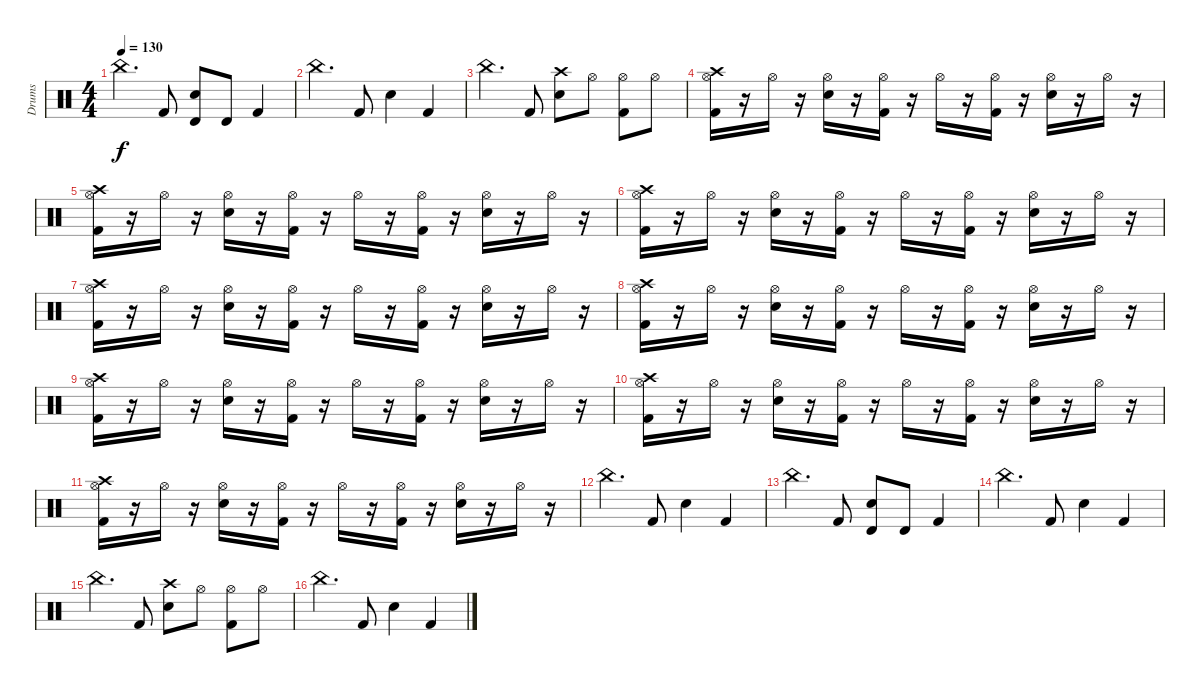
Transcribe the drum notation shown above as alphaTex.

\track ("Drums" "Drums") {instrument percussion}
\staff {score}
\articulation defaults
\ts (4 4)
\tempo 130
\clef neutral
\ks c "China (hit)".4{d dy f} "Kick (hit) 2".8
("Timbale high (hit)" "Snare (hit) 2").8 "Timbale high (hit)".8 "Kick (hit) 2".4 |
"China (hit)".4{d} "Kick (hit) 2".8 "Snare (hit) 2".4 "Kick (hit) 2".4 |
"China (hit)".4{d} "Kick (hit) 2".8 ("Crash high (hit)" "Snare (hit) 2").8 "Hi-Hat (open)".8 ("Hi-Hat (open)" "Kick (hit) 2").8 "Hi-Hat (open)".8 |
("Crash high (hit)" "Hi-Hat (open)" "Kick (hit) 2").16 r.16 "Hi-Hat (open)".16 r.16 ("Hi-Hat (open)" "Snare (hit) 2").16 r.16 ("Hi-Hat (open)" "Kick (hit) 2").16 r.16 "Hi-Hat (open)".16 r.16 ("Hi-Hat (open)" "Kick (hit) 2").16 r.16 ("Hi-Hat (open)" "Snare (hit) 2").16 r.16 "Hi-Hat (open)".16 r.16 |
("Crash high (hit)" "Hi-Hat (open)" "Kick (hit) 2").16 r.16 "Hi-Hat (open)".16 r.16 ("Hi-Hat (open)" "Snare (hit) 2").16 r.16 ("Hi-Hat (open)" "Kick (hit) 2").16 r.16 "Hi-Hat (open)".16 r.16 ("Hi-Hat (open)" "Kick (hit) 2").16 r.16 ("Hi-Hat (open)" "Snare (hit) 2").16 r.16 "Hi-Hat (open)".16 r.16 |
("Crash high (hit)" "Hi-Hat (open)" "Kick (hit) 2").16 r.16 "Hi-Hat (open)".16 r.16 ("Hi-Hat (open)" "Snare (hit) 2").16 r.16 ("Hi-Hat (open)" "Kick (hit) 2").16 r.16 "Hi-Hat (open)".16 r.16 ("Hi-Hat (open)" "Kick (hit) 2").16 r.16 ("Hi-Hat (open)" "Snare (hit) 2").16 r.16 "Hi-Hat (open)".16 r.16 |
("Crash high (hit)" "Hi-Hat (open)" "Kick (hit) 2").16 r.16 "Hi-Hat (open)".16 r.16 ("Hi-Hat (open)" "Snare (hit) 2").16 r.16 ("Hi-Hat (open)" "Kick (hit) 2").16 r.16 "Hi-Hat (open)".16 r.16 ("Hi-Hat (open)" "Kick (hit) 2").16 r.16 ("Hi-Hat (open)" "Snare (hit) 2").16 r.16 "Hi-Hat (open)".16 r.16 |
("Crash high (hit)" "Hi-Hat (open)" "Kick (hit) 2").16 r.16 "Hi-Hat (open)".16 r.16 ("Hi-Hat (open)" "Snare (hit) 2").16 r.16 ("Hi-Hat (open)" "Kick (hit) 2").16 r.16 "Hi-Hat (open)".16 r.16 ("Hi-Hat (open)" "Kick (hit) 2").16 r.16 ("Hi-Hat (open)" "Snare (hit) 2").16 r.16 "Hi-Hat (open)".16 r.16 |
("Crash high (hit)" "Hi-Hat (open)" "Kick (hit) 2").16 r.16 "Hi-Hat (open)".16 r.16 ("Hi-Hat (open)" "Snare (hit) 2").16 r.16 ("Hi-Hat (open)" "Kick (hit) 2").16 r.16 "Hi-Hat (open)".16 r.16 ("Hi-Hat (open)" "Kick (hit) 2").16 r.16 ("Hi-Hat (open)" "Snare (hit) 2").16 r.16 "Hi-Hat (open)".16 r.16 |
("Crash high (hit)" "Hi-Hat (open)" "Kick (hit) 2").16 r.16 "Hi-Hat (open)".16 r.16 ("Hi-Hat (open)" "Snare (hit) 2").16 r.16 ("Hi-Hat (open)" "Kick (hit) 2").16 r.16 "Hi-Hat (open)".16 r.16 ("Hi-Hat (open)" "Kick (hit) 2").16 r.16 ("Hi-Hat (open)" "Snare (hit) 2").16 r.16 "Hi-Hat (open)".16 r.16 |
("Crash high (hit)" "Hi-Hat (open)" "Kick (hit) 2").16 r.16 "Hi-Hat (open)".16 r.16 ("Hi-Hat (open)" "Snare (hit) 2").16 r.16 ("Hi-Hat (open)" "Kick (hit) 2").16 r.16 "Hi-Hat (open)".16 r.16 ("Hi-Hat (open)" "Kick (hit) 2").16 r.16 ("Hi-Hat (open)" "Snare (hit) 2").16 r.16 "Hi-Hat (open)".16 r.16 |
"China (hit)".4{d} "Kick (hit) 2".8 "Snare (hit) 2".4 "Kick (hit) 2".4 |
"China (hit)".4{d} "Kick (hit) 2".8 ("Timbale high (hit)" "Snare (hit) 2").8 "Timbale high (hit)".8 "Kick (hit) 2".4 |
"China (hit)".4{d} "Kick (hit) 2".8 "Snare (hit) 2".4 "Kick (hit) 2".4 |
"China (hit)".4{d} "Kick (hit) 2".8 ("Crash high (hit)" "Snare (hit) 2").8 "Hi-Hat (open)".8 ("Hi-Hat (open)" "Kick (hit) 2").8 "Hi-Hat (open)".8 |
"China (hit)".4{d} "Kick (hit) 2".8 "Snare (hit) 2".4 "Kick (hit) 2".4
